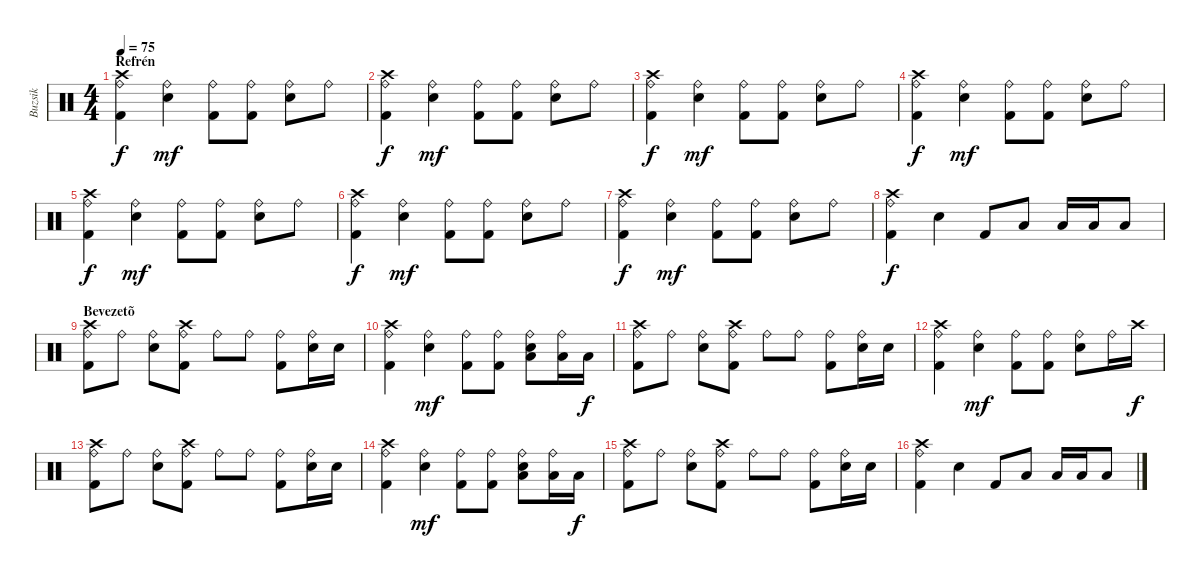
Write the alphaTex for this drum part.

\track ("Buzsik" "Buzsik") {instrument percussion}
\staff {score}
\articulation defaults
\ts (4 4)
\section ("" "Refrén")
\tempo 75
\clef neutral
\ks c
("Crash high (hit)" "Ride (bell)" "Kick (hit) 2").4{dy f} ("Ride (bell)" "Snare (hit) 2").4{dy mf} ("Ride (bell)" "Kick (hit) 2").8 ("Ride (bell)" "Kick (hit) 2").8 ("Ride (bell)" "Snare (hit) 2").8 "Ride (bell)".8 |
("Crash high (hit)" "Ride (bell)" "Kick (hit) 2").4{dy f} ("Ride (bell)" "Snare (hit) 2").4{dy mf} ("Ride (bell)" "Kick (hit) 2").8 ("Ride (bell)" "Kick (hit) 2").8 ("Ride (bell)" "Snare (hit) 2").8 "Ride (bell)".8 |
("Crash high (hit)" "Ride (bell)" "Kick (hit) 2").4{dy f} ("Ride (bell)" "Snare (hit) 2").4{dy mf} ("Ride (bell)" "Kick (hit) 2").8 ("Ride (bell)" "Kick (hit) 2").8 ("Ride (bell)" "Snare (hit) 2").8 "Ride (bell)".8 |
("Crash high (hit)" "Ride (bell)" "Kick (hit) 2").4{dy f} ("Ride (bell)" "Snare (hit) 2").4{dy mf} ("Ride (bell)" "Kick (hit) 2").8 ("Ride (bell)" "Kick (hit) 2").8 ("Ride (bell)" "Snare (hit) 2").8 "Ride (bell)".8 |
("Crash high (hit)" "Ride (bell)" "Kick (hit) 2").4{dy f} ("Ride (bell)" "Snare (hit) 2").4{dy mf} ("Ride (bell)" "Kick (hit) 2").8 ("Ride (bell)" "Kick (hit) 2").8 ("Ride (bell)" "Snare (hit) 2").8 "Ride (bell)".8 |
("Crash high (hit)" "Ride (bell)" "Kick (hit) 2").4{dy f} ("Ride (bell)" "Snare (hit) 2").4{dy mf} ("Ride (bell)" "Kick (hit) 2").8 ("Ride (bell)" "Kick (hit) 2").8 ("Ride (bell)" "Snare (hit) 2").8 "Ride (bell)".8 |
("Crash high (hit)" "Ride (bell)" "Kick (hit) 2").4{dy f} ("Ride (bell)" "Snare (hit) 2").4{dy mf} ("Ride (bell)" "Kick (hit) 2").8 ("Ride (bell)" "Kick (hit) 2").8 ("Ride (bell)" "Snare (hit) 2").8 "Ride (bell)".8 |
("Crash high (hit)" "Ride (bell)" "Kick (hit) 2").4{dy f} "Snare (hit) 2".4 "Kick (hit) 2".8 "Low Floor Tom (hit)".8 "Low Floor Tom (hit)".16 "Low Floor Tom (hit)".16 "Low Floor Tom (hit)".8 |
\section ("" "Bevezetõ")
("Crash high (hit)" "Ride (bell)" "Kick (hit) 2").8 "Ride (bell)".8 ("Ride (bell)" "Electric Snare (hit)").8 ("Crash high (hit)" "Ride (bell)" "Kick (hit) 2").8 "Ride (bell)".8 "Ride (bell)".8 ("Ride (bell)" "Kick (hit) 2").8 ("Ride (bell)" "Electric Snare (hit)").16 "Electric Snare (hit)".16 |
("Crash high (hit)" "Ride (bell)" "Kick (hit) 2").4 ("Ride (bell)" "Snare (hit) 2").4{dy mf} ("Ride (bell)" "Kick (hit) 2").8 ("Ride (bell)" "Kick (hit) 2").8 ("Ride (bell)" "Snare (hit) 2" "Low Floor Tom (hit)").8 ("Ride (bell)" "Low Floor Tom (hit)").16 "Low Floor Tom (hit)".16{dy f} |
("Crash high (hit)" "Ride (bell)" "Kick (hit) 2").8 "Ride (bell)".8 ("Ride (bell)" "Electric Snare (hit)").8 ("Crash high (hit)" "Ride (bell)" "Kick (hit) 2").8 "Ride (bell)".8 "Ride (bell)".8 ("Ride (bell)" "Kick (hit) 2").8 ("Ride (bell)" "Electric Snare (hit)").16 "Electric Snare (hit)".16 |
("Crash high (hit)" "Ride (bell)" "Kick (hit) 2").4 ("Ride (bell)" "Snare (hit) 2").4{dy mf} ("Ride (bell)" "Kick (hit) 2").8 ("Ride (bell)" "Kick (hit) 2").8 ("Ride (bell)" "Snare (hit) 2").8 "Ride (bell)".16 "Crash high (hit)".16{dy f} |
("Crash high (hit)" "Ride (bell)" "Kick (hit) 2").8 "Ride (bell)".8 ("Ride (bell)" "Electric Snare (hit)").8 ("Crash high (hit)" "Ride (bell)" "Kick (hit) 2").8 "Ride (bell)".8 "Ride (bell)".8 ("Ride (bell)" "Kick (hit) 2").8 ("Ride (bell)" "Electric Snare (hit)").16 "Electric Snare (hit)".16 |
("Crash high (hit)" "Ride (bell)" "Kick (hit) 2").4 ("Ride (bell)" "Snare (hit) 2").4{dy mf} ("Ride (bell)" "Kick (hit) 2").8 ("Ride (bell)" "Kick (hit) 2").8 ("Ride (bell)" "Snare (hit) 2" "Low Floor Tom (hit)").8 ("Ride (bell)" "Low Floor Tom (hit)").16 "Low Floor Tom (hit)".16{dy f} |
("Crash high (hit)" "Ride (bell)" "Kick (hit) 2").8 "Ride (bell)".8 ("Ride (bell)" "Electric Snare (hit)").8 ("Crash high (hit)" "Ride (bell)" "Kick (hit) 2").8 "Ride (bell)".8 "Ride (bell)".8 ("Ride (bell)" "Kick (hit) 2").8 ("Ride (bell)" "Electric Snare (hit)").16 "Electric Snare (hit)".16 |
("Crash high (hit)" "Ride (bell)" "Kick (hit) 2").4 "Snare (hit) 2".4 "Kick (hit) 2".8 "Low Floor Tom (hit)".8 "Low Floor Tom (hit)".16 "Low Floor Tom (hit)".16 "Low Floor Tom (hit)".8
